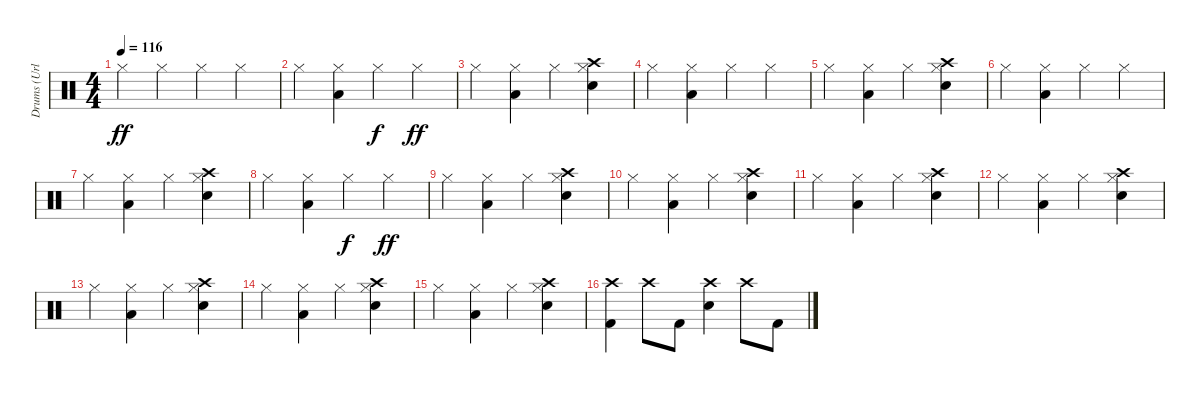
\track ("Drums (Urlich)" "Drums (Url") {instrument percussion}
\staff {score}
\articulation defaults
\ts (4 4)
\tempo 116
\clef neutral
\ks c "Hi-Hat (closed)".4{dy ff} "Hi-Hat (closed)".4 "Hi-Hat (closed)".4 "Hi-Hat (closed)".4
|
"Hi-Hat (closed)".4 ("Low Floor Tom (hit)" "Hi-Hat (closed)").4 "Hi-Hat (closed)".4{dy f} "Hi-Hat (closed)".4{dy ff} |
"Hi-Hat (closed)".4 ("Low Floor Tom (hit)" "Hi-Hat (closed)").4 "Hi-Hat (closed)".4 ("Snare (hit) 2" "Hi-Hat (closed)" "Crash high (hit)").4 |
"Hi-Hat (closed)".4 ("Low Floor Tom (hit)" "Hi-Hat (closed)").4 "Hi-Hat (closed)".4 "Hi-Hat (closed)".4 |
"Hi-Hat (closed)".4 ("Low Floor Tom (hit)" "Hi-Hat (closed)").4 "Hi-Hat (closed)".4 ("Snare (hit) 2" "Hi-Hat (closed)" "Crash high (hit)").4 |
"Hi-Hat (closed)".4 ("Low Floor Tom (hit)" "Hi-Hat (closed)").4 "Hi-Hat (closed)".4 "Hi-Hat (closed)".4 |
"Hi-Hat (closed)".4 ("Low Floor Tom (hit)" "Hi-Hat (closed)").4 "Hi-Hat (closed)".4 ("Snare (hit) 2" "Hi-Hat (closed)" "Crash high (hit)").4 |
"Hi-Hat (closed)".4 ("Low Floor Tom (hit)" "Hi-Hat (closed)").4 "Hi-Hat (closed)".4{dy f} "Hi-Hat (closed)".4{dy ff} |
"Hi-Hat (closed)".4 ("Low Floor Tom (hit)" "Hi-Hat (closed)").4 "Hi-Hat (closed)".4 ("Snare (hit) 2" "Hi-Hat (closed)" "Crash high (hit)").4 |
"Hi-Hat (closed)".4 ("Low Floor Tom (hit)" "Hi-Hat (closed)").4 "Hi-Hat (closed)".4 ("Snare (hit) 2" "Hi-Hat (closed)" "Crash high (hit)").4 |
"Hi-Hat (closed)".4 ("Low Floor Tom (hit)" "Hi-Hat (closed)").4 "Hi-Hat (closed)".4 ("Snare (hit) 2" "Hi-Hat (closed)" "Crash high (hit)").4 |
"Hi-Hat (closed)".4 ("Low Floor Tom (hit)" "Hi-Hat (closed)").4 "Hi-Hat (closed)".4 ("Snare (hit) 2" "Hi-Hat (closed)" "Crash high (hit)").4 |
"Hi-Hat (closed)".4 ("Low Floor Tom (hit)" "Hi-Hat (closed)").4 "Hi-Hat (closed)".4 ("Snare (hit) 2" "Hi-Hat (closed)" "Crash high (hit)").4 |
"Hi-Hat (closed)".4 ("Low Floor Tom (hit)" "Hi-Hat (closed)").4 "Hi-Hat (closed)".4 ("Snare (hit) 2" "Hi-Hat (closed)" "Crash high (hit)").4 |
"Hi-Hat (closed)".4 ("Low Floor Tom (hit)" "Hi-Hat (closed)").4 "Hi-Hat (closed)".4 ("Snare (hit) 2" "Hi-Hat (closed)" "Crash high (hit)").4 |
("Kick (hit) 2" "Crash high (hit)").4 "Crash high (hit)".8 "Kick (hit) 2".8 ("Snare (hit) 2" "Crash high (hit)").4 "Crash high (hit)".8 "Kick (hit) 2".8
